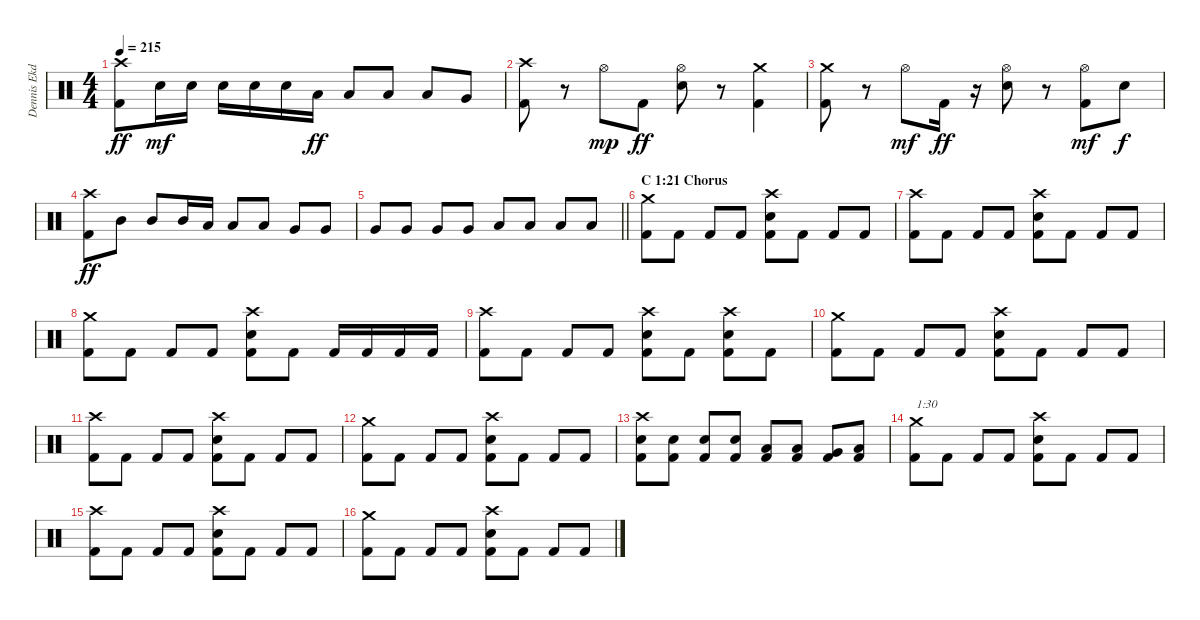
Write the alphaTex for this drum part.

\track ("Dennis Ekdahl      (Drums)" "Dennis Ekd") {instrument percussion}
\staff {score}
\articulation defaults
\ts (4 4)
\tempo 215
\clef neutral
\ks c
("Crash high (hit)" "Kick (hit) 2").8{dy ff} "Electric Snare (hit)".16{dy mf} "Electric Snare (hit)".16 "Electric Snare (hit)".16 "Electric Snare (hit)".16 "Electric Snare (hit)".16 "Low Tom (hit)".16{dy ff} "Low Tom (hit)".8 "Low Tom (hit)".8 "Low Tom (hit)".8 "Very Low Tom (hit)".8 |
("Crash high (hit)" "Kick (hit) 2").8 r.8 "Hi-Hat (open)".8{dy mp} "Kick (hit) 2".8{dy ff} ("Hi-Hat (open)" "Electric Snare (hit)").8 r.8 ("Crash medium (hit)" "Kick (hit) 2").4 |
("Crash medium (hit)" "Kick (hit) 2").8 r.8 "Hi-Hat (open)".8{dy mf} "Kick (hit) 2".16{dy ff} r.16 ("Hi-Hat (open)" "Electric Snare (hit)").8 r.8 ("Hi-Hat (open)" "Kick (hit) 2").8{dy mf} "Electric Snare (hit)".8{dy f} |
("Crash high (hit)" "Kick (hit) 2").8{dy ff} "Mid Tom (hit)".8 "Mid Tom (hit)".8 "Mid Tom (hit)".16 "Low Tom (hit)".16 "Low Tom (hit)".8 "Low Tom (hit)".8 "Very Low Tom (hit)".8 "Very Low Tom (hit)".8 |
\barLineRight lightlight "Very Low Tom (hit)".8 "Very Low Tom (hit)".8 "Very Low Tom (hit)".8 "Very Low Tom (hit)".8 "Low Floor Tom (hit)".8 "Low Floor Tom (hit)".8 "Low Floor Tom (hit)".8 "Low Floor Tom (hit)".8
|
\section ("" "C 1:21 Chorus")
("Crash medium (hit)" "Kick (hit) 2").8 "Kick (hit) 2".8 "Kick (hit) 2".8 "Kick (hit) 2".8 ("Crash high (hit)" "Electric Snare (hit)" "Kick (hit) 2").8 "Kick (hit) 2".8 "Kick (hit) 2".8 "Kick (hit) 2".8 |
("Crash high (hit)" "Kick (hit) 2").8 "Kick (hit) 2".8 "Kick (hit) 2".8 "Kick (hit) 2".8 ("Crash high (hit)" "Electric Snare (hit)" "Kick (hit) 2").8 "Kick (hit) 2".8 "Kick (hit) 2".8 "Kick (hit) 2".8 |
("Crash medium (hit)" "Kick (hit) 2").8 "Kick (hit) 2".8 "Kick (hit) 2".8 "Kick (hit) 2".8 ("Crash high (hit)" "Electric Snare (hit)" "Kick (hit) 2").8 "Kick (hit) 2".8 "Kick (hit) 2".16 "Kick (hit) 2".16 "Kick (hit) 2".16 "Kick (hit) 2".16 |
("Crash high (hit)" "Kick (hit) 2").8 "Kick (hit) 2".8 "Kick (hit) 2".8 "Kick (hit) 2".8 ("Crash high (hit)" "Electric Snare (hit)" "Kick (hit) 2").8 "Kick (hit) 2".8 ("Crash high (hit)" "Electric Snare (hit)" "Kick (hit) 2").8 "Kick (hit) 2".8 |
("Crash medium (hit)" "Kick (hit) 2").8 "Kick (hit) 2".8 "Kick (hit) 2".8 "Kick (hit) 2".8 ("Crash high (hit)" "Electric Snare (hit)" "Kick (hit) 2").8 "Kick (hit) 2".8 "Kick (hit) 2".8 "Kick (hit) 2".8 |
("Crash high (hit)" "Kick (hit) 2").8 "Kick (hit) 2".8 "Kick (hit) 2".8 "Kick (hit) 2".8 ("Crash high (hit)" "Electric Snare (hit)" "Kick (hit) 2").8 "Kick (hit) 2".8 "Kick (hit) 2".8 "Kick (hit) 2".8 |
("Crash medium (hit)" "Kick (hit) 2").8 "Kick (hit) 2".8 "Kick (hit) 2".8 "Kick (hit) 2".8 ("Crash high (hit)" "Electric Snare (hit)" "Kick (hit) 2").8 "Kick (hit) 2".8 "Kick (hit) 2".8 "Kick (hit) 2".8 |
("Crash high (hit)" "Electric Snare (hit)" "Kick (hit) 2").8 ("Electric Snare (hit)" "Kick (hit) 2").8 ("Electric Snare (hit)" "Kick (hit) 2").8 ("Electric Snare (hit)" "Kick (hit) 2").8 ("Low Tom (hit)" "Kick (hit) 2").8 ("Low Tom (hit)" "Kick (hit) 2").8 ("Very Low Tom (hit)" "Kick (hit) 2").8 ("Low Floor Tom (hit)" "Kick (hit) 2").8 |
("Crash medium (hit)" "Kick (hit) 2").8{txt "1:30"} "Kick (hit) 2".8 "Kick (hit) 2".8 "Kick (hit) 2".8 ("Crash high (hit)" "Electric Snare (hit)" "Kick (hit) 2").8 "Kick (hit) 2".8 "Kick (hit) 2".8 "Kick (hit) 2".8 |
("Crash high (hit)" "Kick (hit) 2").8 "Kick (hit) 2".8 "Kick (hit) 2".8 "Kick (hit) 2".8 ("Crash high (hit)" "Electric Snare (hit)" "Kick (hit) 2").8 "Kick (hit) 2".8 "Kick (hit) 2".8 "Kick (hit) 2".8 |
("Crash medium (hit)" "Kick (hit) 2").8 "Kick (hit) 2".8 "Kick (hit) 2".8 "Kick (hit) 2".8 ("Crash high (hit)" "Electric Snare (hit)" "Kick (hit) 2").8 "Kick (hit) 2".8 "Kick (hit) 2".8 "Kick (hit) 2".8
